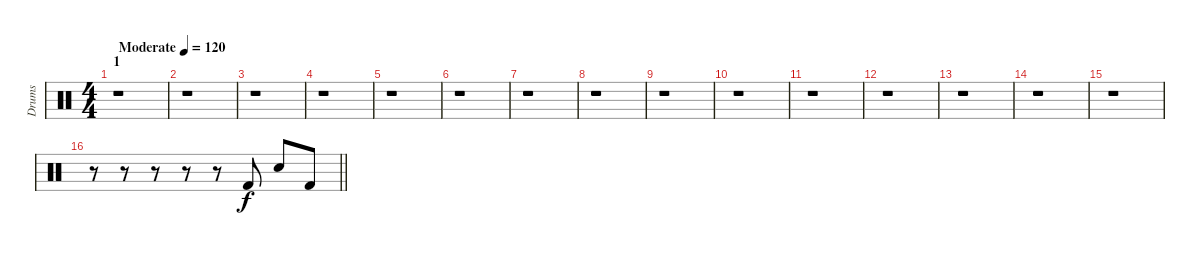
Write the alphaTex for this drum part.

\track ("Drums" "Drums") {instrument percussion}
\staff {score}
\articulation defaults
\ts (4 4)
\section ("" "1")
\tempo (120 "Moderate")
\clef neutral
\ks aminor
r.1{dy f} |
r.1 |
r.1 |
r.1 |
r.1 |
r.1 |
r.1 |
r.1 |
r.1 |
r.1 |
r.1 |
r.1 |
r.1 |
r.1 |
r.1 |
\barLineRight lightlight
r.8 r.8 r.8 r.8 r.8 "Kick (hit) 2".8 "Electric Snare (hit)".8 "Kick (hit) 2".8
